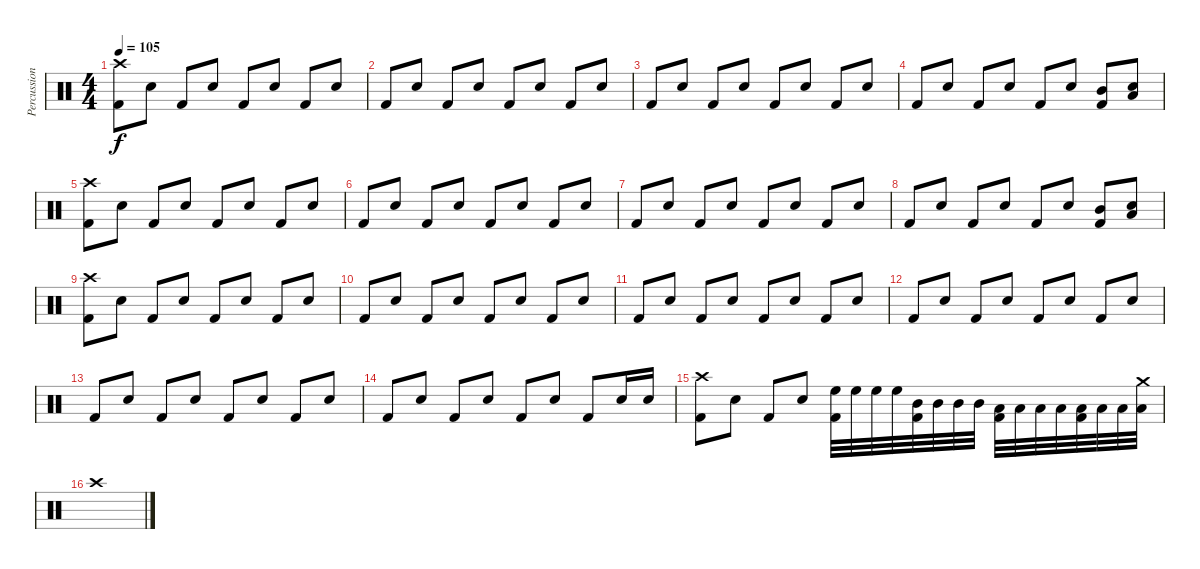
\track ("Percussion" "Percussion") {instrument percussion}
\staff {score}
\articulation defaults
\ts (4 4)
\tempo 105
\clef neutral
\ks c
("Kick (hit) 2" "Crash high (hit)").8{dy f} "Electric Snare (hit)".8 "Kick (hit) 2".8 "Electric Snare (hit)".8 "Kick (hit) 2".8 "Electric Snare (hit)".8 "Kick (hit) 2".8 "Electric Snare (hit)".8 |
"Kick (hit) 2".8 "Electric Snare (hit)".8 "Kick (hit) 2".8 "Electric Snare (hit)".8 "Kick (hit) 2".8 "Electric Snare (hit)".8 "Kick (hit) 2".8 "Electric Snare (hit)".8 |
"Kick (hit) 2".8 "Electric Snare (hit)".8 "Kick (hit) 2".8 "Electric Snare (hit)".8 "Kick (hit) 2".8 "Electric Snare (hit)".8 "Kick (hit) 2".8 "Electric Snare (hit)".8 |
"Kick (hit) 2".8 "Electric Snare (hit)".8 "Kick (hit) 2".8 "Electric Snare (hit)".8 "Kick (hit) 2".8 "Electric Snare (hit)".8 ("Kick (hit) 2" "Mid Tom (hit)").8 ("Electric Snare (hit)" "Low Tom (hit)").8 |
("Kick (hit) 2" "Crash high (hit)").8 "Electric Snare (hit)".8 "Kick (hit) 2".8 "Electric Snare (hit)".8 "Kick (hit) 2".8 "Electric Snare (hit)".8 "Kick (hit) 2".8 "Electric Snare (hit)".8 |
"Kick (hit) 2".8 "Electric Snare (hit)".8 "Kick (hit) 2".8 "Electric Snare (hit)".8 "Kick (hit) 2".8 "Electric Snare (hit)".8 "Kick (hit) 2".8 "Electric Snare (hit)".8 |
"Kick (hit) 2".8 "Electric Snare (hit)".8 "Kick (hit) 2".8 "Electric Snare (hit)".8 "Kick (hit) 2".8 "Electric Snare (hit)".8 "Kick (hit) 2".8 "Electric Snare (hit)".8 |
"Kick (hit) 2".8 "Electric Snare (hit)".8 "Kick (hit) 2".8 "Electric Snare (hit)".8 "Kick (hit) 2".8 "Electric Snare (hit)".8 ("Mid Tom (hit)" "Kick (hit) 2").8 ("Low Tom (hit)" "Electric Snare (hit)").8 |
("Kick (hit) 2" "Crash high (hit)").8 "Electric Snare (hit)".8 "Kick (hit) 2".8 "Electric Snare (hit)".8 "Kick (hit) 2".8 "Electric Snare (hit)".8 "Kick (hit) 2".8 "Electric Snare (hit)".8 |
"Kick (hit) 2".8 "Electric Snare (hit)".8 "Kick (hit) 2".8 "Electric Snare (hit)".8 "Kick (hit) 2".8 "Electric Snare (hit)".8 "Kick (hit) 2".8 "Electric Snare (hit)".8 |
"Kick (hit) 2".8 "Electric Snare (hit)".8 "Kick (hit) 2".8 "Electric Snare (hit)".8 "Kick (hit) 2".8 "Electric Snare (hit)".8 "Kick (hit) 2".8 "Electric Snare (hit)".8 |
"Kick (hit) 2".8 "Electric Snare (hit)".8 "Kick (hit) 2".8 "Electric Snare (hit)".8 "Kick (hit) 2".8 "Electric Snare (hit)".8 "Kick (hit) 2".8 "Electric Snare (hit)".8 |
"Kick (hit) 2".8 "Electric Snare (hit)".8 "Kick (hit) 2".8 "Electric Snare (hit)".8 "Kick (hit) 2".8 "Electric Snare (hit)".8 "Kick (hit) 2".8 "Electric Snare (hit)".8 |
"Kick (hit) 2".8 "Electric Snare (hit)".8 "Kick (hit) 2".8 "Electric Snare (hit)".8 "Kick (hit) 2".8 "Electric Snare (hit)".8 "Kick (hit) 2".8 "Electric Snare (hit)".16 "Electric Snare (hit)".16 |
("Kick (hit) 2" "Crash high (hit)").8 "Electric Snare (hit)".8 "Kick (hit) 2".8 "Electric Snare (hit)".8 ("Kick (hit) 2" "High Floor Tom (hit)").32 "High Floor Tom (hit)".32 "High Floor Tom (hit)".32 "High Floor Tom (hit)".32 ("Kick (hit) 2" "Mid Tom (hit)").32 "Mid Tom (hit)".32 "Mid Tom (hit)".32 "Mid Tom (hit)".32 ("Low Tom (hit)" "Kick (hit) 2").32 "Low Tom (hit)".32 "Low Tom (hit)".32 "Low Tom (hit)".32 ("Low Floor Tom (hit)" "Kick (hit) 2").32 "Low Floor Tom (hit)".32 "Low Floor Tom (hit)".32 ("Crash medium (hit)" "Low Floor Tom (hit)").32 |
"Crash high (hit)".1
